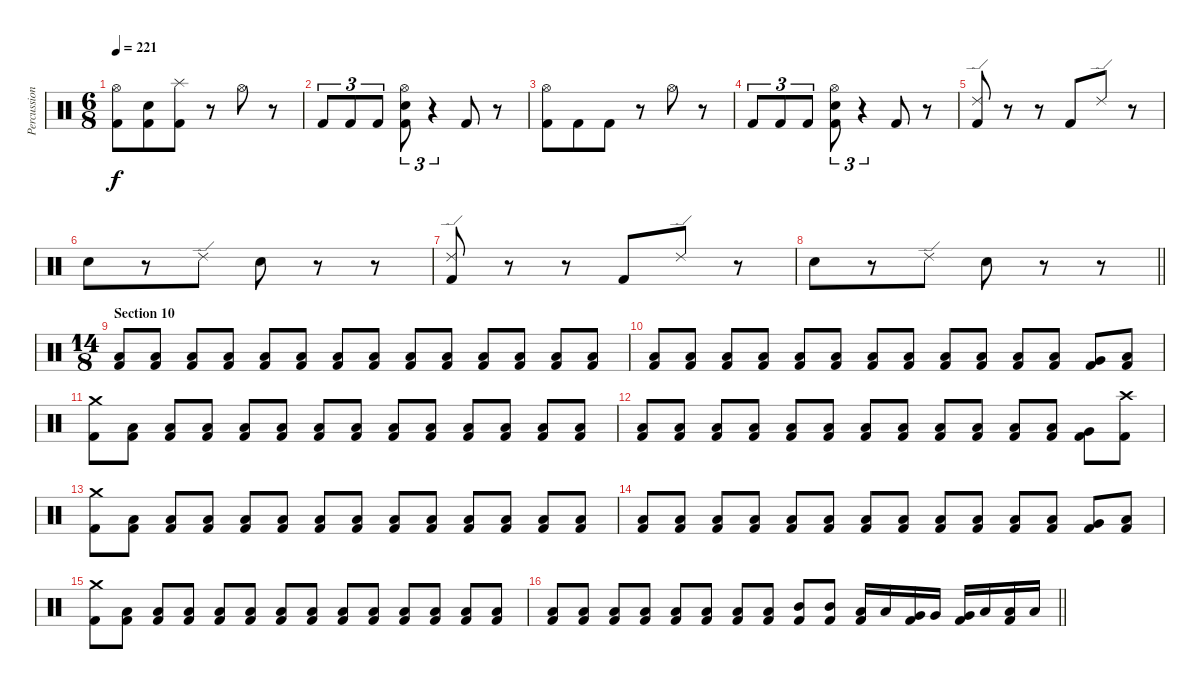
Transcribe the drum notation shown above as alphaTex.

\track ("Percussion" "Percussion") {instrument percussion}
\staff {score}
\articulation defaults
\ts (6 8)
\tempo 221
\clef neutral
\ks c
("Hi-Hat (open)" "Kick (hit) 2").8{dy f} ("Snare (hit) 2" "Kick (hit) 2").8 ("Splash (hit)" "Kick (hit) 2").8 r.8 "Hi-Hat (open)".8 r.8 |
"Kick (hit) 2".8{tu (3 2)} "Kick (hit) 2".8{tu (3 2)} "Kick (hit) 2".8{tu (3 2)} ("Hi-Hat (open)" "Snare (hit) 2" "Kick (hit) 2").8{tu (3 2)} r.4{tu (3 2)} "Kick (hit) 2".8 r.8 |
("Hi-Hat (open)" "Kick (hit) 2").8 "Kick (hit) 2".8 "Kick (hit) 2".8 r.8 "Hi-Hat (open)".8 r.8 |
"Kick (hit) 2".8{tu (3 2)} "Kick (hit) 2".8{tu (3 2)} "Kick (hit) 2".8{tu (3 2)} ("Hi-Hat (open)" "Snare (hit) 2" "Kick (hit) 2").8{tu (3 2)} r.4{tu (3 2)} "Kick (hit) 2".8 r.8 |
("Ride (edge) 2" "Kick (hit) 2").8 r.8 r.8 "Kick (hit) 2".8 "Ride (edge) 2".8 r.8 |
"Snare (hit) 2".8 r.8 "Ride (edge) 2".8 "Snare (hit) 2".8 r.8 r.8 |
("Ride (edge) 2" "Kick (hit) 2").8 r.8 r.8 "Kick (hit) 2".8 "Ride (edge) 2".8 r.8 |
\barLineRight lightlight "Snare (hit) 2".8
r.8 "Ride (edge) 2".8 "Snare (hit) 2".8 r.8 r.8 |
\ts (14 8)
\section ("" "Section 10")
("Low Floor Tom (hit)" "Kick (hit) 2").8 ("Low Floor Tom (hit)" "Kick (hit) 2").8 ("Low Floor Tom (hit)" "Kick (hit) 2").8 ("Low Floor Tom (hit)" "Kick (hit) 2").8 ("Low Floor Tom (hit)" "Kick (hit) 2").8 ("Low Floor Tom (hit)" "Kick (hit) 2").8 ("Low Floor Tom (hit)" "Kick (hit) 2").8 ("Low Floor Tom (hit)" "Kick (hit) 2").8 ("Low Tom (hit)" "Kick (hit) 2").8 ("Low Tom (hit)" "Kick (hit) 2").8 ("Low Tom (hit)" "Kick (hit) 2").8 ("Low Tom (hit)" "Kick (hit) 2").8 ("Low Floor Tom (hit)" "Kick (hit) 2").8 ("Low Floor Tom (hit)" "Kick (hit) 2").8 |
("Low Floor Tom (hit)" "Kick (hit) 2").8 ("Low Floor Tom (hit)" "Kick (hit) 2").8 ("Low Floor Tom (hit)" "Kick (hit) 2").8 ("Low Floor Tom (hit)" "Kick (hit) 2").8 ("Low Floor Tom (hit)" "Kick (hit) 2").8 ("Low Floor Tom (hit)" "Kick (hit) 2").8 ("Low Floor Tom (hit)" "Kick (hit) 2").8 ("Low Floor Tom (hit)" "Kick (hit) 2").8 ("Low Tom (hit)" "Kick (hit) 2").8 ("Low Tom (hit)" "Kick (hit) 2").8 ("Low Tom (hit)" "Kick (hit) 2").8 ("Low Tom (hit)" "Kick (hit) 2").8 ("Very Low Tom (hit)" "Kick (hit) 2").8 ("Low Tom (hit)" "Kick (hit) 2").8 |
("Crash medium (hit)" "Kick (hit) 2").8 ("Low Floor Tom (hit)" "Kick (hit) 2").8 ("Low Floor Tom (hit)" "Kick (hit) 2").8 ("Low Floor Tom (hit)" "Kick (hit) 2").8 ("Low Floor Tom (hit)" "Kick (hit) 2").8 ("Low Floor Tom (hit)" "Kick (hit) 2").8 ("Low Floor Tom (hit)" "Kick (hit) 2").8 ("Low Floor Tom (hit)" "Kick (hit) 2").8 ("Low Tom (hit)" "Kick (hit) 2").8 ("Low Tom (hit)" "Kick (hit) 2").8 ("Low Tom (hit)" "Kick (hit) 2").8 ("Low Tom (hit)" "Kick (hit) 2").8 ("Low Floor Tom (hit)" "Kick (hit) 2").8 ("Low Floor Tom (hit)" "Kick (hit) 2").8 |
("Low Floor Tom (hit)" "Kick (hit) 2").8 ("Low Floor Tom (hit)" "Kick (hit) 2").8 ("Low Floor Tom (hit)" "Kick (hit) 2").8 ("Low Floor Tom (hit)" "Kick (hit) 2").8 ("Low Floor Tom (hit)" "Kick (hit) 2").8 ("Low Floor Tom (hit)" "Kick (hit) 2").8 ("Low Floor Tom (hit)" "Kick (hit) 2").8 ("Low Floor Tom (hit)" "Kick (hit) 2").8 ("Low Tom (hit)" "Kick (hit) 2").8 ("Low Tom (hit)" "Kick (hit) 2").8 ("Low Tom (hit)" "Kick (hit) 2").8 ("Low Tom (hit)" "Kick (hit) 2").8 ("Very Low Tom (hit)" "Kick (hit) 2").8 ("Crash high (hit)" "Kick (hit) 2").8 |
("Crash medium (hit)" "Kick (hit) 2").8 ("Low Floor Tom (hit)" "Kick (hit) 2").8 ("Low Floor Tom (hit)" "Kick (hit) 2").8 ("Low Floor Tom (hit)" "Kick (hit) 2").8 ("Low Floor Tom (hit)" "Kick (hit) 2").8 ("Low Floor Tom (hit)" "Kick (hit) 2").8 ("Low Floor Tom (hit)" "Kick (hit) 2").8 ("Low Floor Tom (hit)" "Kick (hit) 2").8 ("Low Tom (hit)" "Kick (hit) 2").8 ("Low Tom (hit)" "Kick (hit) 2").8 ("Low Tom (hit)" "Kick (hit) 2").8 ("Low Tom (hit)" "Kick (hit) 2").8 ("Low Floor Tom (hit)" "Kick (hit) 2").8 ("Low Floor Tom (hit)" "Kick (hit) 2").8 |
("Low Floor Tom (hit)" "Kick (hit) 2").8 ("Low Floor Tom (hit)" "Kick (hit) 2").8 ("Low Floor Tom (hit)" "Kick (hit) 2").8 ("Low Floor Tom (hit)" "Kick (hit) 2").8 ("Low Floor Tom (hit)" "Kick (hit) 2").8 ("Low Floor Tom (hit)" "Kick (hit) 2").8 ("Low Floor Tom (hit)" "Kick (hit) 2").8 ("Low Floor Tom (hit)" "Kick (hit) 2").8 ("Low Tom (hit)" "Kick (hit) 2").8 ("Low Tom (hit)" "Kick (hit) 2").8 ("Low Tom (hit)" "Kick (hit) 2").8 ("Low Tom (hit)" "Kick (hit) 2").8 ("Very Low Tom (hit)" "Kick (hit) 2").8 ("Low Tom (hit)" "Kick (hit) 2").8 |
("Crash medium (hit)" "Kick (hit) 2").8 ("Low Floor Tom (hit)" "Kick (hit) 2").8 ("Low Floor Tom (hit)" "Kick (hit) 2").8 ("Low Floor Tom (hit)" "Kick (hit) 2").8 ("Low Floor Tom (hit)" "Kick (hit) 2").8 ("Low Floor Tom (hit)" "Kick (hit) 2").8 ("Low Floor Tom (hit)" "Kick (hit) 2").8 ("Low Floor Tom (hit)" "Kick (hit) 2").8 ("Low Tom (hit)" "Kick (hit) 2").8 ("Low Tom (hit)" "Kick (hit) 2").8 ("Low Tom (hit)" "Kick (hit) 2").8 ("Low Tom (hit)" "Kick (hit) 2").8 ("Low Floor Tom (hit)" "Kick (hit) 2").8 ("Low Floor Tom (hit)" "Kick (hit) 2").8 |
\barLineRight lightlight
("Low Floor Tom (hit)" "Kick (hit) 2").8 ("Low Floor Tom (hit)" "Kick (hit) 2").8 ("Low Floor Tom (hit)" "Kick (hit) 2").8 ("Low Floor Tom (hit)" "Kick (hit) 2").8 ("Low Floor Tom (hit)" "Kick (hit) 2").8 ("Low Floor Tom (hit)" "Kick (hit) 2").8 ("Low Floor Tom (hit)" "Kick (hit) 2").8 ("Low Floor Tom (hit)" "Kick (hit) 2").8 ("Mid Tom (hit)" "Kick (hit) 2").8 ("Mid Tom (hit)" "Kick (hit) 2").8 ("Low Tom (hit)" "Kick (hit) 2").16 "Low Tom (hit)".16 ("Very Low Tom (hit)" "Kick (hit) 2").16 "Very Low Tom (hit)".16 ("Very Low Tom (hit)" "Kick (hit) 2").16 "Low Floor Tom (hit)".16 ("Low Floor Tom (hit)" "Kick (hit) 2").16 "Low Floor Tom (hit)".16
